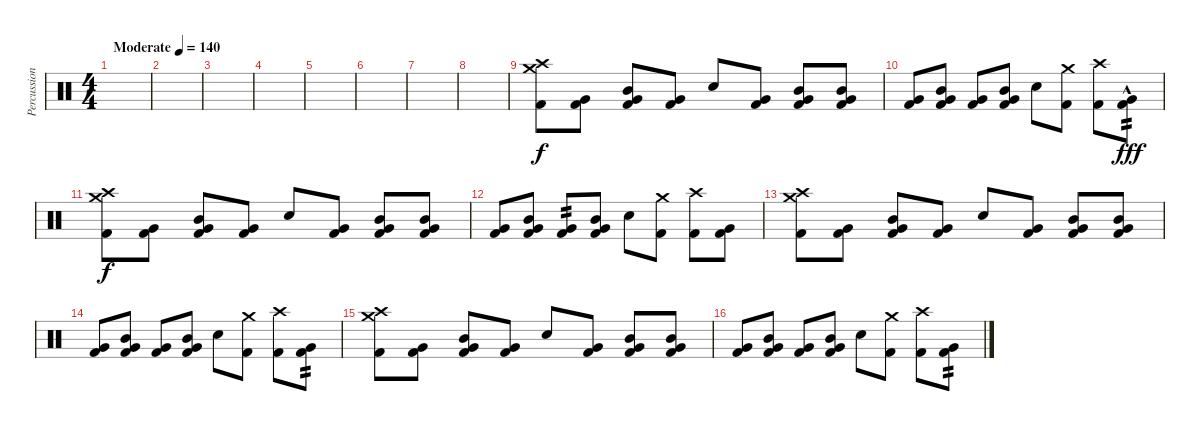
\track ("Percussion" "Percussion") {instrument percussion}
\staff {score}
\articulation defaults
\ts (4 4)
\tempo (140 "Moderate")
\clef neutral
\ks c
|
|
|
|
|
|
|
|
("Crash high (hit)" "Crash medium (hit)" "Kick (hit) 2").8 ("Very Low Tom (hit)" "Kick (hit) 2").8 ("Mid Tom (hit)" "Very Low Tom (hit)" "Kick (hit) 2").8 ("Very Low Tom (hit)" "Kick (hit) 2").8 "Electric Snare (hit)".8 ("Very Low Tom (hit)" "Kick (hit) 2").8 ("Mid Tom (hit)" "Very Low Tom (hit)" "Kick (hit) 2").8 ("Mid Tom (hit)" "Very Low Tom (hit)" "Kick (hit) 2").8 |
("Very Low Tom (hit)" "Kick (hit) 2").8 ("Mid Tom (hit)" "Very Low Tom (hit)" "Kick (hit) 2").8 ("Very Low Tom (hit)" "Kick (hit) 2").8 ("Mid Tom (hit)" "Very Low Tom (hit)" "Kick (hit) 2").8 "Electric Snare (hit)".8 ("Crash medium (hit)" "Kick (hit) 2").8 ("Crash high (hit)" "Kick (hit) 2").8 ("Very Low Tom (hit)" "Kick (hit) 2"{hac}).8{tp 2 dy fff} |
("Crash high (hit)" "Crash medium (hit)" "Kick (hit) 2").8{dy f} ("Very Low Tom (hit)" "Kick (hit) 2").8 ("Mid Tom (hit)" "Very Low Tom (hit)" "Kick (hit) 2").8 ("Very Low Tom (hit)" "Kick (hit) 2").8 "Electric Snare (hit)".8 ("Very Low Tom (hit)" "Kick (hit) 2").8 ("Mid Tom (hit)" "Very Low Tom (hit)" "Kick (hit) 2").8 ("Mid Tom (hit)" "Very Low Tom (hit)" "Kick (hit) 2").8 |
("Very Low Tom (hit)" "Kick (hit) 2").8 ("Mid Tom (hit)" "Very Low Tom (hit)" "Kick (hit) 2").8 ("Very Low Tom (hit)" "Kick (hit) 2").8{tp 2} ("Mid Tom (hit)" "Very Low Tom (hit)" "Kick (hit) 2").8 "Electric Snare (hit)".8 ("Crash medium (hit)" "Kick (hit) 2").8 ("Crash high (hit)" "Kick (hit) 2").8 ("Very Low Tom (hit)" "Kick (hit) 2").8 |
("Crash high (hit)" "Crash medium (hit)" "Kick (hit) 2").8 ("Very Low Tom (hit)" "Kick (hit) 2").8 ("Mid Tom (hit)" "Very Low Tom (hit)" "Kick (hit) 2").8 ("Very Low Tom (hit)" "Kick (hit) 2").8 "Electric Snare (hit)".8 ("Very Low Tom (hit)" "Kick (hit) 2").8 ("Mid Tom (hit)" "Very Low Tom (hit)" "Kick (hit) 2").8 ("Mid Tom (hit)" "Very Low Tom (hit)" "Kick (hit) 2").8 |
("Very Low Tom (hit)" "Kick (hit) 2").8 ("Mid Tom (hit)" "Very Low Tom (hit)" "Kick (hit) 2").8 ("Very Low Tom (hit)" "Kick (hit) 2").8 ("Mid Tom (hit)" "Very Low Tom (hit)" "Kick (hit) 2").8 "Electric Snare (hit)".8 ("Crash medium (hit)" "Kick (hit) 2").8 ("Crash high (hit)" "Kick (hit) 2").8 ("Very Low Tom (hit)" "Kick (hit) 2").8{tp 2} |
("Crash high (hit)" "Crash medium (hit)" "Kick (hit) 2").8 ("Very Low Tom (hit)" "Kick (hit) 2").8 ("Mid Tom (hit)" "Very Low Tom (hit)" "Kick (hit) 2").8 ("Very Low Tom (hit)" "Kick (hit) 2").8 "Electric Snare (hit)".8 ("Very Low Tom (hit)" "Kick (hit) 2").8 ("Mid Tom (hit)" "Very Low Tom (hit)" "Kick (hit) 2").8 ("Mid Tom (hit)" "Very Low Tom (hit)" "Kick (hit) 2").8 |
("Very Low Tom (hit)" "Kick (hit) 2").8 ("Mid Tom (hit)" "Very Low Tom (hit)" "Kick (hit) 2").8 ("Very Low Tom (hit)" "Kick (hit) 2").8 ("Mid Tom (hit)" "Very Low Tom (hit)" "Kick (hit) 2").8 "Electric Snare (hit)".8 ("Crash medium (hit)" "Kick (hit) 2").8 ("Crash high (hit)" "Kick (hit) 2").8 ("Very Low Tom (hit)" "Kick (hit) 2").8{tp 2}
